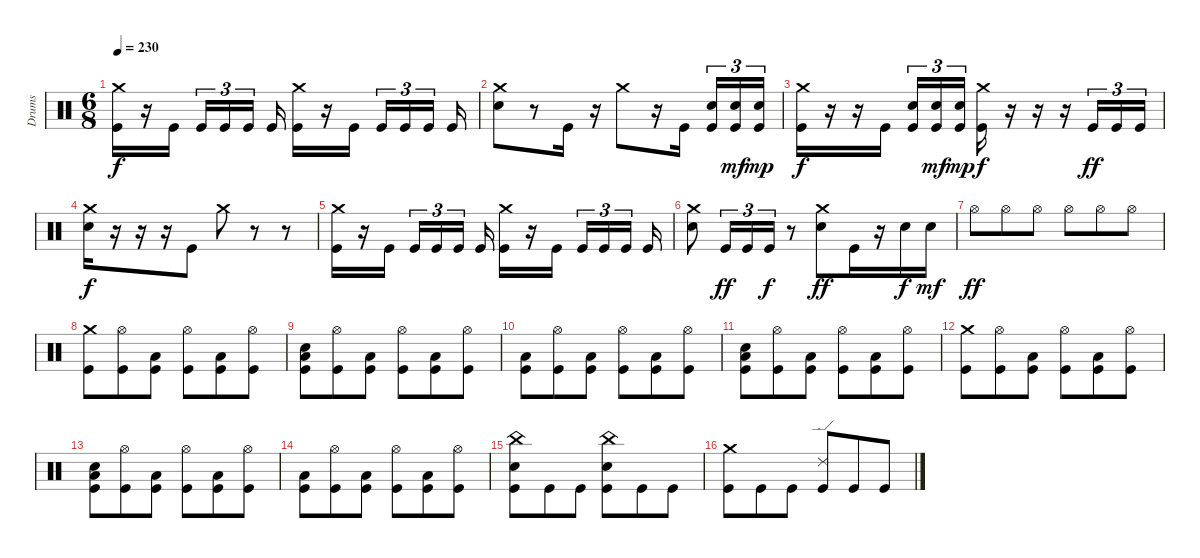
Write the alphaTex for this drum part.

\track ("Drums" "Drums") {instrument percussion}
\staff {score}
\articulation defaults
\ts (6 8)
\tempo 230
\clef neutral
\ks c
("Kick (hit)" "Crash medium (hit)").16{dy f} r.16 "Kick (hit)".16{beam splitsecondary} "Kick (hit)".16{tu (3 2)} "Kick (hit)".16{tu (3 2)} "Kick (hit)".16{tu (3 2) beam splitsecondary} "Kick (hit)".16 ("Kick (hit)" "Crash medium (hit)").16 r.16 "Kick (hit)".16{beam splitsecondary} "Kick (hit)".16{tu (3 2)} "Kick (hit)".16{tu (3 2)} "Kick (hit)".16{tu (3 2) beam splitsecondary} "Kick (hit)".16 |
("Snare (hit) 2" "Crash medium (hit)").8 r.8 "Kick (hit)".16 r.16 "Crash medium (hit)".8 r.16 "Kick (hit)".16{beam splitsecondary} ("Kick (hit)" "Snare (hit) 2").16{tu (3 2)} ("Kick (hit)" "Snare (hit) 2").16{tu (3 2) dy mf} ("Kick (hit)" "Snare (hit) 2").16{tu (3 2) dy mp} |
("Kick (hit)" "Crash medium (hit)").16{dy f} r.16 r.16 "Kick (hit)".16{beam splitsecondary} ("Kick (hit)" "Snare (hit) 2").16{tu (3 2)} ("Kick (hit)" "Snare (hit) 2").16{tu (3 2) dy mf} ("Kick (hit)" "Snare (hit) 2").16{tu (3 2) dy mp} ("Kick (hit)" "Crash medium (hit)").16{dy f} r.16 r.16 r.16 "Kick (hit)".16{tu (3 2) dy ff} "Kick (hit)".16{tu (3 2)} "Kick (hit)".16{tu (3 2)} |
("Snare (hit) 2" "Crash medium (hit)").16{dy f} r.16 r.16 r.16 "Kick (hit)".8 "Crash medium (hit)".8 r.8 r.8 |
("Kick (hit)" "Crash medium (hit)").16 r.16 "Kick (hit)".16{beam splitsecondary} "Kick (hit)".16{tu (3 2)} "Kick (hit)".16{tu (3 2)} "Kick (hit)".16{tu (3 2) beam splitsecondary} "Kick (hit)".16 ("Kick (hit)" "Crash medium (hit)").16 r.16 "Kick (hit)".16{beam splitsecondary} "Kick (hit)".16{tu (3 2)} "Kick (hit)".16{tu (3 2)} "Kick (hit)".16{tu (3 2) beam splitsecondary} "Kick (hit)".16 |
("Snare (hit) 2" "Crash medium (hit)").8 "Kick (hit)".16{tu (3 2) dy ff} "Kick (hit)".16{tu (3 2)} "Kick (hit)".16{tu (3 2) dy f} r.8 ("Snare (hit) 2" "Crash medium (hit)").8{dy ff} "Kick (hit)".16 r.16 "Snare (hit) 2".16{dy f} "Snare (hit) 2".16{dy mf} |
"Hi-Hat (open)".8{dy ff} "Hi-Hat (open)".8 "Hi-Hat (open)".8 "Hi-Hat (open)".8 "Hi-Hat (open)".8 "Hi-Hat (open)".8 |
("Kick (hit)" "Crash medium (hit)").8 ("Kick (hit)" "Hi-Hat (open)").8 ("Kick (hit)" "Low Tom (hit)").8 ("Kick (hit)" "Hi-Hat (open)").8 ("Kick (hit)" "Low Tom (hit)").8 ("Kick (hit)" "Hi-Hat (open)").8 |
("Kick (hit)" "Snare (hit) 2" "Low Tom (hit)").8 ("Kick (hit)" "Hi-Hat (open)").8 ("Kick (hit)" "Low Tom (hit)").8 ("Kick (hit)" "Hi-Hat (open)").8 ("Kick (hit)" "Low Tom (hit)").8 ("Kick (hit)" "Hi-Hat (open)").8 |
("Kick (hit)" "Low Tom (hit)").8 ("Kick (hit)" "Hi-Hat (open)").8 ("Kick (hit)" "Low Tom (hit)").8 ("Kick (hit)" "Hi-Hat (open)").8 ("Kick (hit)" "Low Tom (hit)").8 ("Kick (hit)" "Hi-Hat (open)").8 |
("Kick (hit)" "Snare (hit) 2" "Low Tom (hit)").8 ("Kick (hit)" "Hi-Hat (open)").8 ("Kick (hit)" "Low Tom (hit)").8 ("Kick (hit)" "Hi-Hat (open)").8 ("Kick (hit)" "Low Tom (hit)").8 ("Kick (hit)" "Hi-Hat (open)").8 |
("Kick (hit)" "Crash medium (hit)").8 ("Kick (hit)" "Hi-Hat (open)").8 ("Kick (hit)" "Low Tom (hit)").8 ("Kick (hit)" "Hi-Hat (open)").8 ("Kick (hit)" "Low Tom (hit)").8 ("Kick (hit)" "Hi-Hat (open)").8 |
("Kick (hit)" "Snare (hit) 2" "Low Tom (hit)").8 ("Kick (hit)" "Hi-Hat (open)").8 ("Kick (hit)" "Low Tom (hit)").8 ("Kick (hit)" "Hi-Hat (open)").8 ("Kick (hit)" "Low Tom (hit)").8 ("Kick (hit)" "Hi-Hat (open)").8 |
("Kick (hit)" "Low Tom (hit)").8 ("Kick (hit)" "Hi-Hat (open)").8 ("Kick (hit)" "Low Tom (hit)").8 ("Kick (hit)" "Hi-Hat (open)").8 ("Kick (hit)" "Low Tom (hit)").8 ("Kick (hit)" "Hi-Hat (open)").8 |
("Kick (hit)" "Snare (hit) 2" "China (hit)").8 "Kick (hit)".8 "Kick (hit)".8 ("Kick (hit)" "Snare (hit) 2" "China (hit)").8 "Kick (hit)".8 "Kick (hit)".8 |
("Kick (hit)" "Crash medium (hit)").8 "Kick (hit)".8 "Kick (hit)".8 ("Kick (hit)" "Ride (edge) 2").8 "Kick (hit)".8 "Kick (hit)".8
